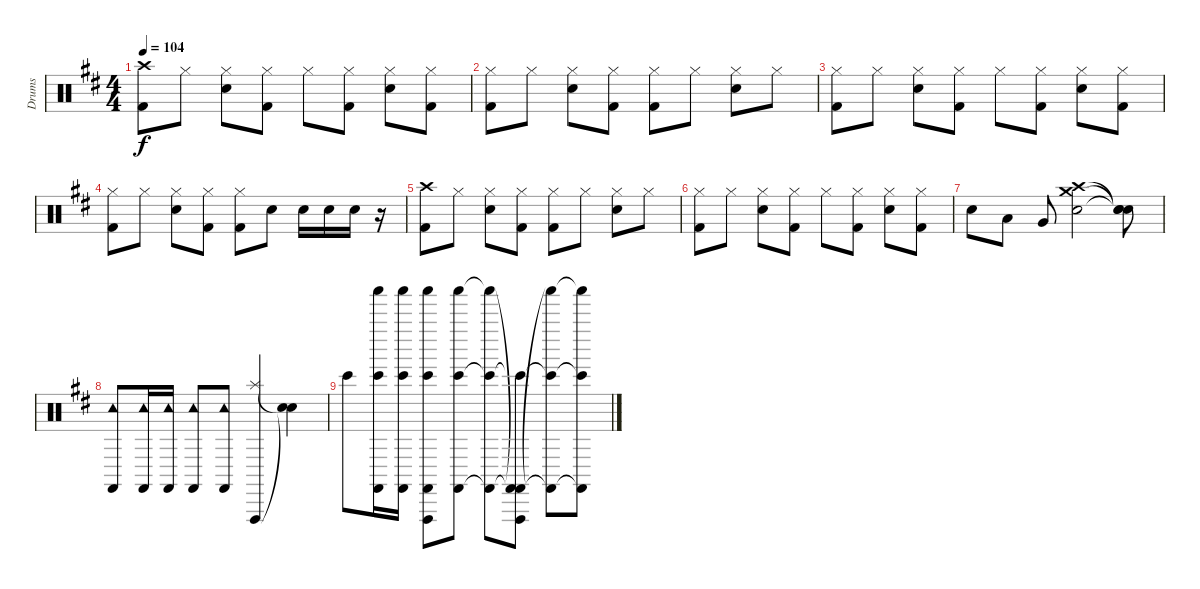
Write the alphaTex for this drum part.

\track ("Drums" "Drums") {instrument percussion}
\staff {score}
\articulation defaults
\ts (4 4)
\tempo 104
\clef neutral
\ks d
("Crash high (hit)" "Kick (hit) 2").8{dy f} "Hi-Hat (closed)".8 ("Hi-Hat (closed)" "Snare (hit) 2").8 ("Hi-Hat (closed)" "Kick (hit) 2").8 "Hi-Hat (closed)".8 ("Hi-Hat (closed)" "Kick (hit) 2").8 ("Hi-Hat (closed)" "Snare (hit) 2").8 ("Hi-Hat (closed)" "Kick (hit) 2").8 |
("Hi-Hat (closed)" "Kick (hit) 2").8 "Hi-Hat (closed)".8 ("Hi-Hat (closed)" "Snare (hit) 2").8 ("Hi-Hat (closed)" "Kick (hit) 2").8 ("Hi-Hat (closed)" "Kick (hit) 2").8 "Hi-Hat (closed)".8 ("Hi-Hat (closed)" "Snare (hit) 2").8 "Hi-Hat (closed)".8 |
("Hi-Hat (closed)" "Kick (hit) 2").8 "Hi-Hat (closed)".8 ("Hi-Hat (closed)" "Snare (hit) 2").8 ("Hi-Hat (closed)" "Kick (hit) 2").8 "Hi-Hat (closed)".8 ("Hi-Hat (closed)" "Kick (hit) 2").8 ("Hi-Hat (closed)" "Snare (hit) 2").8 ("Hi-Hat (closed)" "Kick (hit) 2").8 |
("Hi-Hat (closed)" "Kick (hit) 2").8 "Hi-Hat (closed)".8 ("Hi-Hat (closed)" "Snare (hit) 2").8 ("Hi-Hat (closed)" "Kick (hit) 2").8 ("Hi-Hat (closed)" "Kick (hit) 2").8 "Snare (hit) 2".8 "Snare (hit) 2".16 "Snare (hit) 2".16 "Snare (hit) 2".16 r.16 |
("Crash high (hit)" "Kick (hit) 2").8 "Hi-Hat (closed)".8 ("Hi-Hat (closed)" "Snare (hit) 2").8 ("Hi-Hat (closed)" "Kick (hit) 2").8 ("Hi-Hat (closed)" "Kick (hit) 2").8 "Hi-Hat (closed)".8 ("Hi-Hat (closed)" "Snare (hit) 2").8 "Hi-Hat (closed)".8 |
("Hi-Hat (closed)" "Kick (hit) 2").8 "Hi-Hat (closed)".8 ("Hi-Hat (closed)" "Snare (hit) 2").8 ("Hi-Hat (closed)" "Kick (hit) 2").8 "Hi-Hat (closed)".8 ("Hi-Hat (closed)" "Kick (hit) 2").8 ("Hi-Hat (closed)" "Snare (hit) 2").8 ("Hi-Hat (closed)" "Kick (hit) 2").8 |
"Snare (hit) 2".8 "Low Tom (hit)".8 "Very Low Tom (hit)".8 ("Crash high (hit)" "Crash medium (hit)" "Snare (hit) 2").2 ("Snare (hit)"{t} "Snare (hit)"{t} "Snare (hit)"{t}).8 |
("Tambourine (hit)" "Castanets (hit)").8 ("Tambourine (hit)" "Castanets (hit)").16 ("Tambourine (hit)" "Castanets (hit)").16 ("Tambourine (hit)" "Castanets (hit)").8 ("Tambourine (hit)" "Castanets (hit)").8 ("Splash (hit)" "Vibraslap (hit)").4 ("Snare (hit)"{t} "Snare (hit)"{t}).4 |
"Bongo High (hit)".8 ("Shaker (hit)" "Bongo High (hit)" "Castanets (hit)").16 ("Shaker (hit)" "Bongo High (hit)" "Castanets (hit)").16 ("Shaker (hit)" "Bongo High (hit)" "Castanets (hit)" "Vibraslap (hit)").8 ("Shaker (hit)" "Bongo High (hit)" "Castanets (hit)").8 ("Shaker (hit)"{t} "Bongo High (hit)"{t} "Castanets (hit)"{t}).8 ("Castanets (hit)"{t} "Bongo High (hit)"{t} "Castanets (hit)"{t} "Vibraslap (hit)").8 ("Shaker (hit)"{t} "Bongo High (hit)"{t} "Castanets (hit)"{t}).8 ("Shaker (hit)"{t} "Bongo High (hit)"{t} "Castanets (hit)"{t}).8
